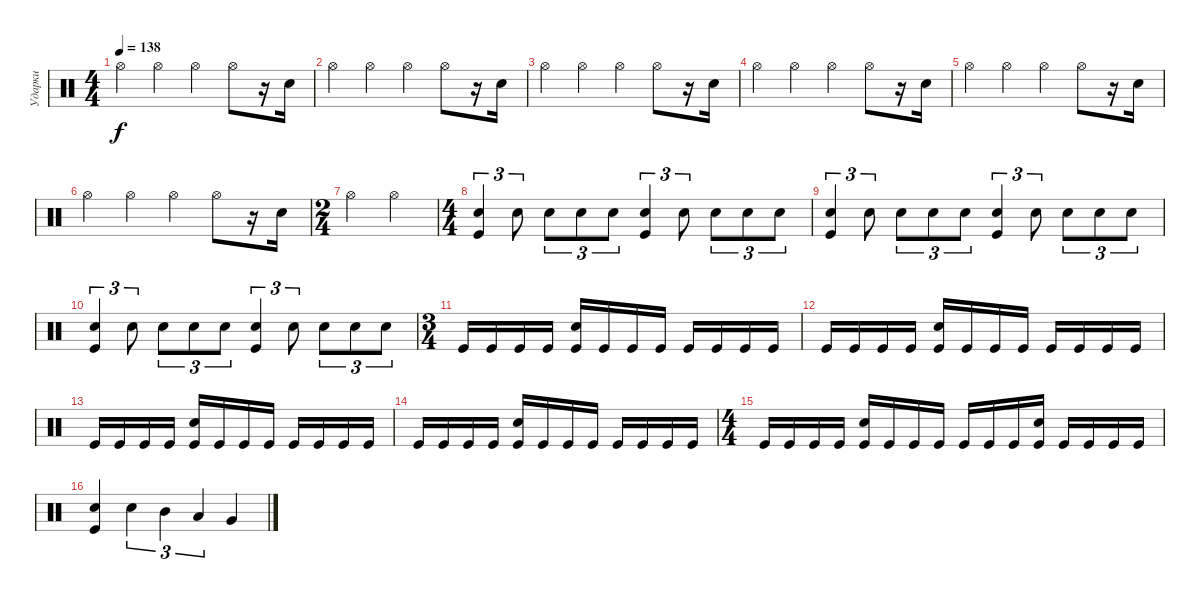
\track ("Ударки" "Ударки") {instrument percussion}
\staff {score}
\articulation defaults
\ts (4 4)
\tempo 138
\clef neutral
\ks c "Hi-Hat (open)".4{dy f} "Hi-Hat (open)".4 "Hi-Hat (open)".4 "Hi-Hat (open)".8
r.16 "Snare (hit) 2".16 |
"Hi-Hat (open)".4 "Hi-Hat (open)".4 "Hi-Hat (open)".4 "Hi-Hat (open)".8 r.16 "Snare (hit) 2".16 |
"Hi-Hat (open)".4 "Hi-Hat (open)".4 "Hi-Hat (open)".4 "Hi-Hat (open)".8 r.16 "Snare (hit) 2".16 |
"Hi-Hat (open)".4 "Hi-Hat (open)".4 "Hi-Hat (open)".4 "Hi-Hat (open)".8 r.16 "Snare (hit) 2".16 |
"Hi-Hat (open)".4 "Hi-Hat (open)".4 "Hi-Hat (open)".4 "Hi-Hat (open)".8 r.16 "Snare (hit) 2".16 |
"Hi-Hat (open)".4 "Hi-Hat (open)".4 "Hi-Hat (open)".4 "Hi-Hat (open)".8 r.16 "Snare (hit) 2".16 |
\ts (2 4)
"Hi-Hat (open)".4 "Hi-Hat (open)".4 |
\ts (4 4)
("Snare (hit) 2" "Kick (hit)").4{tu (3 2)} "Snare (hit) 2".8{tu (3 2)} "Snare (hit) 2".8{tu (3 2)} "Snare (hit) 2".8{tu (3 2)} "Snare (hit) 2".8{tu (3 2)} ("Snare (hit) 2" "Kick (hit)").4{tu (3 2)} "Snare (hit) 2".8{tu (3 2)} "Snare (hit) 2".8{tu (3 2)} "Snare (hit) 2".8{tu (3 2)} "Snare (hit) 2".8{tu (3 2)} |
("Snare (hit) 2" "Kick (hit)").4{tu (3 2)} "Snare (hit) 2".8{tu (3 2)} "Snare (hit) 2".8{tu (3 2)} "Snare (hit) 2".8{tu (3 2)} "Snare (hit) 2".8{tu (3 2)} ("Snare (hit) 2" "Kick (hit)").4{tu (3 2)} "Snare (hit) 2".8{tu (3 2)} "Snare (hit) 2".8{tu (3 2)} "Snare (hit) 2".8{tu (3 2)} "Snare (hit) 2".8{tu (3 2)} |
("Snare (hit) 2" "Kick (hit)").4{tu (3 2)} "Snare (hit) 2".8{tu (3 2)} "Snare (hit) 2".8{tu (3 2)} "Snare (hit) 2".8{tu (3 2)} "Snare (hit) 2".8{tu (3 2)} ("Snare (hit) 2" "Kick (hit)").4{tu (3 2)} "Snare (hit) 2".8{tu (3 2)} "Snare (hit) 2".8{tu (3 2)} "Snare (hit) 2".8{tu (3 2)} "Snare (hit) 2".8{tu (3 2)} |
\ts (3 4)
"Kick (hit)".16 "Kick (hit)".16 "Kick (hit)".16 "Kick (hit)".16 ("Kick (hit)" "Snare (hit) 2").16 "Kick (hit)".16 "Kick (hit)".16 "Kick (hit)".16 "Kick (hit)".16 "Kick (hit)".16 "Kick (hit)".16 "Kick (hit)".16 |
"Kick (hit)".16 "Kick (hit)".16 "Kick (hit)".16 "Kick (hit)".16 ("Kick (hit)" "Snare (hit) 2").16 "Kick (hit)".16 "Kick (hit)".16 "Kick (hit)".16 "Kick (hit)".16 "Kick (hit)".16 "Kick (hit)".16 "Kick (hit)".16 |
"Kick (hit)".16 "Kick (hit)".16 "Kick (hit)".16 "Kick (hit)".16 ("Kick (hit)" "Snare (hit) 2").16 "Kick (hit)".16 "Kick (hit)".16 "Kick (hit)".16 "Kick (hit)".16 "Kick (hit)".16 "Kick (hit)".16 "Kick (hit)".16 |
"Kick (hit)".16 "Kick (hit)".16 "Kick (hit)".16 "Kick (hit)".16 ("Kick (hit)" "Snare (hit) 2").16 "Kick (hit)".16 "Kick (hit)".16 "Kick (hit)".16 "Kick (hit)".16 "Kick (hit)".16 "Kick (hit)".16 "Kick (hit)".16 |
\ts (4 4)
"Kick (hit)".16 "Kick (hit)".16 "Kick (hit)".16 "Kick (hit)".16 ("Kick (hit)" "Snare (hit) 2").16 "Kick (hit)".16 "Kick (hit)".16 "Kick (hit)".16 "Kick (hit)".16 "Kick (hit)".16 "Kick (hit)".16 ("Kick (hit)" "Snare (hit) 2").16 "Kick (hit)".16 "Kick (hit)".16 "Kick (hit)".16 "Kick (hit)".16 |
("Kick (hit)" "Snare (hit) 2").4 "Snare (hit) 2".4{tu (3 2)} "Mid Tom (hit)".4{tu (3 2)} "Low Tom (hit)".4{tu (3 2)} "Very Low Tom (hit)".4
